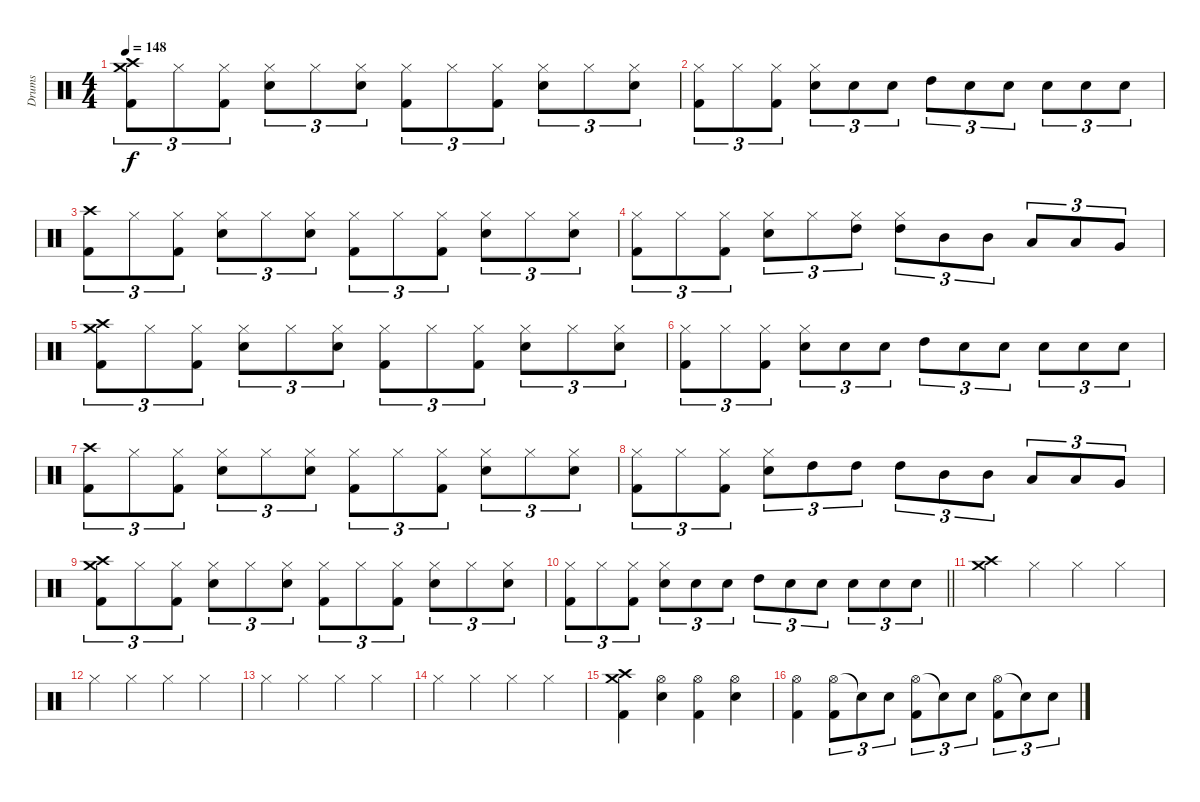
\track ("Drums" "Drums") {instrument percussion}
\staff {score}
\articulation defaults
\ts (4 4)
\tempo 148
\clef neutral
\ks c
("Crash high (hit)" "Crash medium (hit)" "Kick (hit) 2").8{tu (3 2) dy f} "Hi-Hat (closed)".8{tu (3 2)} ("Hi-Hat (closed)" "Kick (hit) 2").8{tu (3 2)} ("Hi-Hat (closed)" "Snare (hit) 2").8{tu (3 2)} "Hi-Hat (closed)".8{tu (3 2)} ("Hi-Hat (closed)" "Snare (hit) 2").8{tu (3 2)} ("Hi-Hat (closed)" "Kick (hit) 2").8{tu (3 2)} "Hi-Hat (closed)".8{tu (3 2)} ("Hi-Hat (closed)" "Kick (hit) 2").8{tu (3 2)} ("Hi-Hat (closed)" "Snare (hit) 2").8{tu (3 2)} "Hi-Hat (closed)".8{tu (3 2)} ("Hi-Hat (closed)" "Snare (hit) 2").8{tu (3 2)} |
("Hi-Hat (closed)" "Kick (hit) 2").8{tu (3 2)} "Hi-Hat (closed)".8{tu (3 2)} ("Hi-Hat (closed)" "Kick (hit) 2").8{tu (3 2)} ("Hi-Hat (closed)" "Snare (hit) 2").8{tu (3 2)} "Snare (hit) 2".8{tu (3 2)} "Snare (hit) 2".8{tu (3 2)} "High Tom (hit)".8{tu (3 2)} "Snare (hit) 2".8{tu (3 2)} "Snare (hit) 2".8{tu (3 2)} "Snare (hit) 2".8{tu (3 2)} "Snare (hit) 2".8{tu (3 2)} "Snare (hit) 2".8{tu (3 2)} |
("Crash high (hit)" "Kick (hit) 2").8{tu (3 2)} "Hi-Hat (closed)".8{tu (3 2)} ("Hi-Hat (closed)" "Kick (hit) 2").8{tu (3 2)} ("Hi-Hat (closed)" "Snare (hit) 2").8{tu (3 2)} "Hi-Hat (closed)".8{tu (3 2)} ("Hi-Hat (closed)" "Snare (hit) 2").8{tu (3 2)} ("Hi-Hat (closed)" "Kick (hit) 2").8{tu (3 2)} "Hi-Hat (closed)".8{tu (3 2)} ("Hi-Hat (closed)" "Kick (hit) 2").8{tu (3 2)} ("Hi-Hat (closed)" "Snare (hit) 2").8{tu (3 2)} "Hi-Hat (closed)".8{tu (3 2)} ("Hi-Hat (closed)" "Snare (hit) 2").8{tu (3 2)} |
("Hi-Hat (closed)" "Kick (hit) 2").8{tu (3 2)} "Hi-Hat (closed)".8{tu (3 2)} ("Hi-Hat (closed)" "Kick (hit) 2").8{tu (3 2)} ("Hi-Hat (closed)" "Snare (hit) 2").8{tu (3 2)} "Hi-Hat (closed)".8{tu (3 2)} ("Hi-Hat (closed)" "High Tom (hit)").8{tu (3 2)} ("Hi-Hat (closed)" "High Tom (hit)").8{tu (3 2)} "Mid Tom (hit)".8{tu (3 2)} "Mid Tom (hit)".8{tu (3 2)} "Low Tom (hit)".8{tu (3 2)} "Low Tom (hit)".8{tu (3 2)} "Very Low Tom (hit)".8{tu (3 2)} |
("Crash high (hit)" "Crash medium (hit)" "Kick (hit) 2").8{tu (3 2)} "Hi-Hat (closed)".8{tu (3 2)} ("Hi-Hat (closed)" "Kick (hit) 2").8{tu (3 2)} ("Hi-Hat (closed)" "Snare (hit) 2").8{tu (3 2)} "Hi-Hat (closed)".8{tu (3 2)} ("Hi-Hat (closed)" "Snare (hit) 2").8{tu (3 2)} ("Hi-Hat (closed)" "Kick (hit) 2").8{tu (3 2)} "Hi-Hat (closed)".8{tu (3 2)} ("Hi-Hat (closed)" "Kick (hit) 2").8{tu (3 2)} ("Hi-Hat (closed)" "Snare (hit) 2").8{tu (3 2)} "Hi-Hat (closed)".8{tu (3 2)} ("Hi-Hat (closed)" "Snare (hit) 2").8{tu (3 2)} |
("Hi-Hat (closed)" "Kick (hit) 2").8{tu (3 2)} "Hi-Hat (closed)".8{tu (3 2)} ("Hi-Hat (closed)" "Kick (hit) 2").8{tu (3 2)} ("Hi-Hat (closed)" "Snare (hit) 2").8{tu (3 2)} "Snare (hit) 2".8{tu (3 2)} "Snare (hit) 2".8{tu (3 2)} "High Tom (hit)".8{tu (3 2)} "Snare (hit) 2".8{tu (3 2)} "Snare (hit) 2".8{tu (3 2)} "Snare (hit) 2".8{tu (3 2)} "Snare (hit) 2".8{tu (3 2)} "Snare (hit) 2".8{tu (3 2)} |
("Crash high (hit)" "Kick (hit) 2").8{tu (3 2)} "Hi-Hat (closed)".8{tu (3 2)} ("Hi-Hat (closed)" "Kick (hit) 2").8{tu (3 2)} ("Hi-Hat (closed)" "Snare (hit) 2").8{tu (3 2)} "Hi-Hat (closed)".8{tu (3 2)} ("Hi-Hat (closed)" "Snare (hit) 2").8{tu (3 2)} ("Hi-Hat (closed)" "Kick (hit) 2").8{tu (3 2)} "Hi-Hat (closed)".8{tu (3 2)} ("Hi-Hat (closed)" "Kick (hit) 2").8{tu (3 2)} ("Hi-Hat (closed)" "Snare (hit) 2").8{tu (3 2)} "Hi-Hat (closed)".8{tu (3 2)} ("Hi-Hat (closed)" "Snare (hit) 2").8{tu (3 2)} |
("Hi-Hat (closed)" "Kick (hit) 2").8{tu (3 2)} "Hi-Hat (closed)".8{tu (3 2)} ("Hi-Hat (closed)" "Kick (hit) 2").8{tu (3 2)} ("Hi-Hat (closed)" "Snare (hit) 2").8{tu (3 2)} "High Tom (hit)".8{tu (3 2)} "High Tom (hit)".8{tu (3 2)} "High Tom (hit)".8{tu (3 2)} "Mid Tom (hit)".8{tu (3 2)} "Mid Tom (hit)".8{tu (3 2)} "Low Tom (hit)".8{tu (3 2)} "Low Tom (hit)".8{tu (3 2)} "Very Low Tom (hit)".8{tu (3 2)} |
("Crash high (hit)" "Crash medium (hit)" "Kick (hit) 2").8{tu (3 2)} "Hi-Hat (closed)".8{tu (3 2)} ("Hi-Hat (closed)" "Kick (hit) 2").8{tu (3 2)} ("Hi-Hat (closed)" "Snare (hit) 2").8{tu (3 2)} "Hi-Hat (closed)".8{tu (3 2)} ("Hi-Hat (closed)" "Snare (hit) 2").8{tu (3 2)} ("Hi-Hat (closed)" "Kick (hit) 2").8{tu (3 2)} "Hi-Hat (closed)".8{tu (3 2)} ("Hi-Hat (closed)" "Kick (hit) 2").8{tu (3 2)} ("Hi-Hat (closed)" "Snare (hit) 2").8{tu (3 2)} "Hi-Hat (closed)".8{tu (3 2)} ("Hi-Hat (closed)" "Snare (hit) 2").8{tu (3 2)} |
\barLineRight lightlight
("Hi-Hat (closed)" "Kick (hit) 2").8{tu (3 2)} "Hi-Hat (closed)".8{tu (3 2)} ("Hi-Hat (closed)" "Kick (hit) 2").8{tu (3 2)} ("Hi-Hat (closed)" "Snare (hit) 2").8{tu (3 2)} "Snare (hit) 2".8{tu (3 2)} "Snare (hit) 2".8{tu (3 2)} "High Tom (hit)".8{tu (3 2)} "Snare (hit) 2".8{tu (3 2)} "Snare (hit) 2".8{tu (3 2)} "Snare (hit) 2".8{tu (3 2)} "Snare (hit) 2".8{tu (3 2)} "Snare (hit) 2".8{tu (3 2)} |
("Crash medium (hit)" "Crash high (hit)").4 "Hi-Hat (closed)".4 "Hi-Hat (closed)".4 "Hi-Hat (closed)".4 |
"Hi-Hat (closed)".4 "Hi-Hat (closed)".4 "Hi-Hat (closed)".4 "Hi-Hat (closed)".4 |
"Hi-Hat (closed)".4 "Hi-Hat (closed)".4 "Hi-Hat (closed)".4 "Hi-Hat (closed)".4 |
"Hi-Hat (closed)".4 "Hi-Hat (closed)".4 "Hi-Hat (closed)".4 "Hi-Hat (closed)".4 |
("Crash high (hit)" "Crash medium (hit)" "Kick (hit) 2").4 ("Hi-Hat (open)" "Snare (hit) 2").4 ("Hi-Hat (open)" "Kick (hit) 2").4 ("Hi-Hat (open)" "Snare (hit) 2").4 |
("Hi-Hat (open)" "Kick (hit) 2").4 ("Hi-Hat (open)" "Kick (hit) 2").8{tu (3 2)} "Snare (hit)"{t}.8{tu (3 2)} "Snare (hit) 2".8{tu (3 2)} ("Hi-Hat (open)" "Kick (hit) 2").8{tu (3 2)} "Snare (hit)"{t}.8{tu (3 2)} "Snare (hit) 2".8{tu (3 2)} ("Hi-Hat (open)" "Kick (hit) 2").8{tu (3 2)} "Snare (hit) 2"{t}.8{tu (3 2)} "Snare (hit) 2".8{tu (3 2)}
